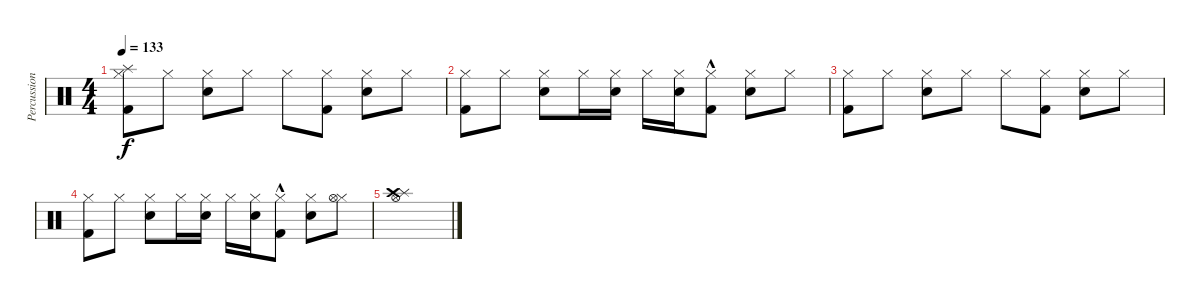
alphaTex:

\track ("Percussion" "Percussion") {instrument percussion}
\staff {score}
\articulation defaults
\ts (4 4)
\tempo 133
\clef neutral
\ks c
("Hi-Hat (closed)" "Splash (hit)" "Kick (hit) 2").8{dy f} "Hi-Hat (closed)".8 ("Hi-Hat (closed)" "Snare (hit) 2").8 "Hi-Hat (closed)".8 "Hi-Hat (closed)".8 ("Hi-Hat (closed)" "Kick (hit) 2").8 ("Hi-Hat (closed)" "Snare (hit) 2").8 "Hi-Hat (closed)".8 |
("Hi-Hat (closed)" "Kick (hit) 2").8 "Hi-Hat (closed)".8 ("Hi-Hat (closed)" "Snare (hit) 2").8 "Hi-Hat (closed)".16 ("Hi-Hat (closed)" "Snare (hit) 2").16 "Hi-Hat (closed)".16 ("Hi-Hat (closed)" "Snare (hit) 2").16 ("Hi-Hat (closed)" "Kick (hit) 2"{hac}).8 ("Hi-Hat (closed)" "Snare (hit) 2").8 "Hi-Hat (closed)".8 |
("Hi-Hat (closed)" "Kick (hit) 2").8 "Hi-Hat (closed)".8 ("Hi-Hat (closed)" "Snare (hit) 2").8 "Hi-Hat (closed)".8 "Hi-Hat (closed)".8 ("Hi-Hat (closed)" "Kick (hit) 2").8 ("Hi-Hat (closed)" "Snare (hit) 2").8 "Hi-Hat (closed)".8 |
("Hi-Hat (closed)" "Kick (hit) 2").8 "Hi-Hat (closed)".8 ("Hi-Hat (closed)" "Snare (hit) 2").8 "Hi-Hat (closed)".16 ("Hi-Hat (closed)" "Snare (hit) 2").16 "Hi-Hat (closed)".16 ("Hi-Hat (closed)" "Snare (hit) 2").16 ("Hi-Hat (closed)" "Kick (hit) 2"{hac}).8 ("Hi-Hat (closed)" "Snare (hit) 2").8 ("Hi-Hat (closed)" "Hi-Hat (open)").8 |
("Hi-Hat (open)" "Splash (hit)" "Crash high (hit)").1
